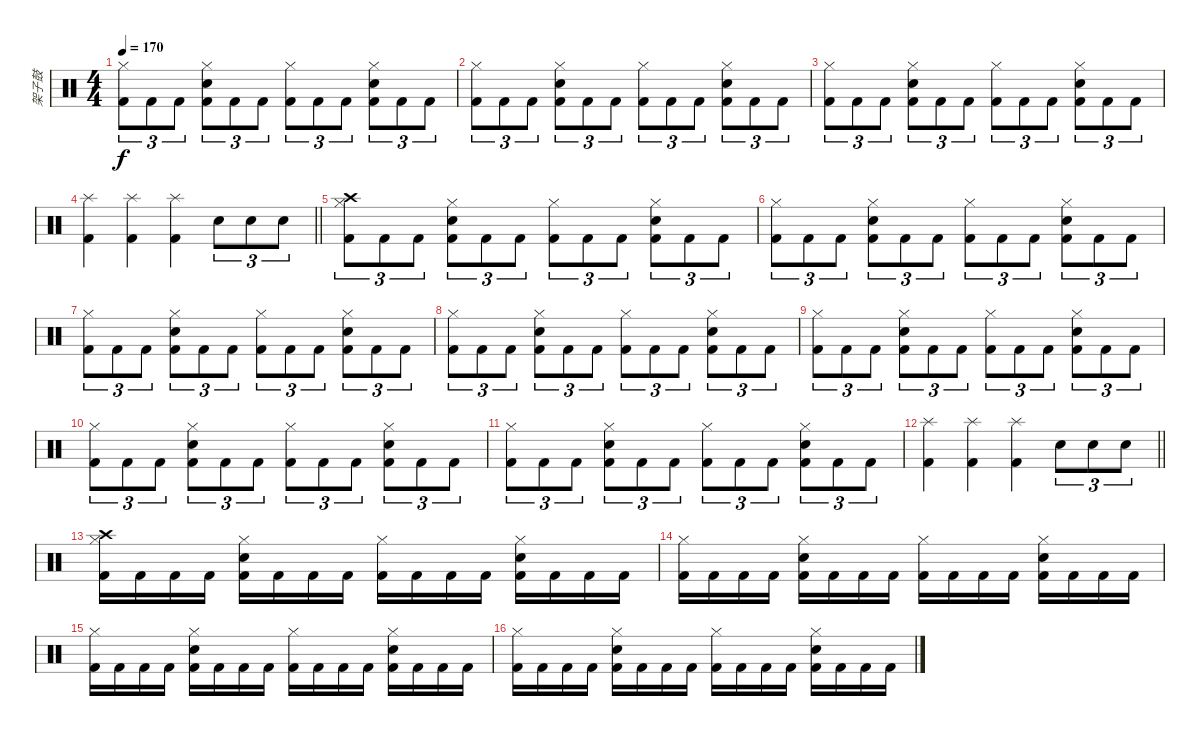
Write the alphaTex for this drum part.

\track ("架子鼓" "架子鼓") {instrument percussion}
\staff {score}
\articulation defaults
\ts (4 4)
\tempo 170
\clef neutral
\ks c
("Hi-Hat (closed)" "Kick (hit) 2").8{tu (3 2) dy f} "Kick (hit) 2".8{tu (3 2)} "Kick (hit) 2".8{tu (3 2)} ("Hi-Hat (closed)" "Snare (hit) 2" "Kick (hit) 2").8{tu (3 2)} "Kick (hit) 2".8{tu (3 2)} "Kick (hit) 2".8{tu (3 2)} ("Hi-Hat (closed)" "Kick (hit) 2").8{tu (3 2)} "Kick (hit) 2".8{tu (3 2)} "Kick (hit) 2".8{tu (3 2)} ("Hi-Hat (closed)" "Snare (hit) 2" "Kick (hit) 2").8{tu (3 2)} "Kick (hit) 2".8{tu (3 2)} "Kick (hit) 2".8{tu (3 2)} |
("Hi-Hat (closed)" "Kick (hit) 2").8{tu (3 2)} "Kick (hit) 2".8{tu (3 2)} "Kick (hit) 2".8{tu (3 2)} ("Hi-Hat (closed)" "Snare (hit) 2" "Kick (hit) 2").8{tu (3 2)} "Kick (hit) 2".8{tu (3 2)} "Kick (hit) 2".8{tu (3 2)} ("Hi-Hat (closed)" "Kick (hit) 2").8{tu (3 2)} "Kick (hit) 2".8{tu (3 2)} "Kick (hit) 2".8{tu (3 2)} ("Hi-Hat (closed)" "Snare (hit) 2" "Kick (hit) 2").8{tu (3 2)} "Kick (hit) 2".8{tu (3 2)} "Kick (hit) 2".8{tu (3 2)} |
("Hi-Hat (closed)" "Kick (hit) 2").8{tu (3 2)} "Kick (hit) 2".8{tu (3 2)} "Kick (hit) 2".8{tu (3 2)} ("Hi-Hat (closed)" "Snare (hit) 2" "Kick (hit) 2").8{tu (3 2)} "Kick (hit) 2".8{tu (3 2)} "Kick (hit) 2".8{tu (3 2)} ("Hi-Hat (closed)" "Kick (hit) 2").8{tu (3 2)} "Kick (hit) 2".8{tu (3 2)} "Kick (hit) 2".8{tu (3 2)} ("Hi-Hat (closed)" "Snare (hit) 2" "Kick (hit) 2").8{tu (3 2)} "Kick (hit) 2".8{tu (3 2)} "Kick (hit) 2".8{tu (3 2)} |
\barLineRight lightlight
("Kick (hit) 2" "Splash (hit)").4 ("Kick (hit) 2" "Splash (hit)").4 ("Kick (hit) 2" "Splash (hit)").4 "Snare (hit) 2".8{tu (3 2)} "Snare (hit) 2".8{tu (3 2)} "Snare (hit) 2".8{tu (3 2)} |
("Hi-Hat (closed)" "Kick (hit) 2" "Crash high (hit)").8{tu (3 2)} "Kick (hit) 2".8{tu (3 2)} "Kick (hit) 2".8{tu (3 2)} ("Hi-Hat (closed)" "Snare (hit) 2" "Kick (hit) 2").8{tu (3 2)} "Kick (hit) 2".8{tu (3 2)} "Kick (hit) 2".8{tu (3 2)} ("Hi-Hat (closed)" "Kick (hit) 2").8{tu (3 2)} "Kick (hit) 2".8{tu (3 2)} "Kick (hit) 2".8{tu (3 2)} ("Hi-Hat (closed)" "Snare (hit) 2" "Kick (hit) 2").8{tu (3 2)} "Kick (hit) 2".8{tu (3 2)} "Kick (hit) 2".8{tu (3 2)} |
("Hi-Hat (closed)" "Kick (hit) 2").8{tu (3 2)} "Kick (hit) 2".8{tu (3 2)} "Kick (hit) 2".8{tu (3 2)} ("Hi-Hat (closed)" "Snare (hit) 2" "Kick (hit) 2").8{tu (3 2)} "Kick (hit) 2".8{tu (3 2)} "Kick (hit) 2".8{tu (3 2)} ("Hi-Hat (closed)" "Kick (hit) 2").8{tu (3 2)} "Kick (hit) 2".8{tu (3 2)} "Kick (hit) 2".8{tu (3 2)} ("Hi-Hat (closed)" "Snare (hit) 2" "Kick (hit) 2").8{tu (3 2)} "Kick (hit) 2".8{tu (3 2)} "Kick (hit) 2".8{tu (3 2)} |
("Hi-Hat (closed)" "Kick (hit) 2").8{tu (3 2)} "Kick (hit) 2".8{tu (3 2)} "Kick (hit) 2".8{tu (3 2)} ("Hi-Hat (closed)" "Snare (hit) 2" "Kick (hit) 2").8{tu (3 2)} "Kick (hit) 2".8{tu (3 2)} "Kick (hit) 2".8{tu (3 2)} ("Hi-Hat (closed)" "Kick (hit) 2").8{tu (3 2)} "Kick (hit) 2".8{tu (3 2)} "Kick (hit) 2".8{tu (3 2)} ("Hi-Hat (closed)" "Snare (hit) 2" "Kick (hit) 2").8{tu (3 2)} "Kick (hit) 2".8{tu (3 2)} "Kick (hit) 2".8{tu (3 2)} |
("Hi-Hat (closed)" "Kick (hit) 2").8{tu (3 2)} "Kick (hit) 2".8{tu (3 2)} "Kick (hit) 2".8{tu (3 2)} ("Hi-Hat (closed)" "Snare (hit) 2" "Kick (hit) 2").8{tu (3 2)} "Kick (hit) 2".8{tu (3 2)} "Kick (hit) 2".8{tu (3 2)} ("Hi-Hat (closed)" "Kick (hit) 2").8{tu (3 2)} "Kick (hit) 2".8{tu (3 2)} "Kick (hit) 2".8{tu (3 2)} ("Hi-Hat (closed)" "Snare (hit) 2" "Kick (hit) 2").8{tu (3 2)} "Kick (hit) 2".8{tu (3 2)} "Kick (hit) 2".8{tu (3 2)} |
("Hi-Hat (closed)" "Kick (hit) 2").8{tu (3 2)} "Kick (hit) 2".8{tu (3 2)} "Kick (hit) 2".8{tu (3 2)} ("Hi-Hat (closed)" "Snare (hit) 2" "Kick (hit) 2").8{tu (3 2)} "Kick (hit) 2".8{tu (3 2)} "Kick (hit) 2".8{tu (3 2)} ("Hi-Hat (closed)" "Kick (hit) 2").8{tu (3 2)} "Kick (hit) 2".8{tu (3 2)} "Kick (hit) 2".8{tu (3 2)} ("Hi-Hat (closed)" "Snare (hit) 2" "Kick (hit) 2").8{tu (3 2)} "Kick (hit) 2".8{tu (3 2)} "Kick (hit) 2".8{tu (3 2)} |
("Hi-Hat (closed)" "Kick (hit) 2").8{tu (3 2)} "Kick (hit) 2".8{tu (3 2)} "Kick (hit) 2".8{tu (3 2)} ("Hi-Hat (closed)" "Snare (hit) 2" "Kick (hit) 2").8{tu (3 2)} "Kick (hit) 2".8{tu (3 2)} "Kick (hit) 2".8{tu (3 2)} ("Hi-Hat (closed)" "Kick (hit) 2").8{tu (3 2)} "Kick (hit) 2".8{tu (3 2)} "Kick (hit) 2".8{tu (3 2)} ("Hi-Hat (closed)" "Snare (hit) 2" "Kick (hit) 2").8{tu (3 2)} "Kick (hit) 2".8{tu (3 2)} "Kick (hit) 2".8{tu (3 2)} |
("Hi-Hat (closed)" "Kick (hit) 2").8{tu (3 2)} "Kick (hit) 2".8{tu (3 2)} "Kick (hit) 2".8{tu (3 2)} ("Hi-Hat (closed)" "Snare (hit) 2" "Kick (hit) 2").8{tu (3 2)} "Kick (hit) 2".8{tu (3 2)} "Kick (hit) 2".8{tu (3 2)} ("Hi-Hat (closed)" "Kick (hit) 2").8{tu (3 2)} "Kick (hit) 2".8{tu (3 2)} "Kick (hit) 2".8{tu (3 2)} ("Hi-Hat (closed)" "Snare (hit) 2" "Kick (hit) 2").8{tu (3 2)} "Kick (hit) 2".8{tu (3 2)} "Kick (hit) 2".8{tu (3 2)} |
\barLineRight lightlight
("Kick (hit) 2" "Splash (hit)").4 ("Kick (hit) 2" "Splash (hit)").4 ("Kick (hit) 2" "Splash (hit)").4 "Snare (hit) 2".8{tu (3 2)} "Snare (hit) 2".8{tu (3 2)} "Snare (hit) 2".8{tu (3 2)} |
("Hi-Hat (closed)" "Kick (hit) 2" "Crash high (hit)").16 "Kick (hit) 2".16 "Kick (hit) 2".16 "Kick (hit) 2".16 ("Hi-Hat (closed)" "Snare (hit) 2" "Kick (hit) 2").16 "Kick (hit) 2".16 "Kick (hit) 2".16 "Kick (hit) 2".16 ("Hi-Hat (closed)" "Kick (hit) 2").16 "Kick (hit) 2".16 "Kick (hit) 2".16 "Kick (hit) 2".16 ("Hi-Hat (closed)" "Snare (hit) 2" "Kick (hit) 2").16 "Kick (hit) 2".16 "Kick (hit) 2".16 "Kick (hit) 2".16 |
("Hi-Hat (closed)" "Kick (hit) 2").16 "Kick (hit) 2".16 "Kick (hit) 2".16 "Kick (hit) 2".16 ("Hi-Hat (closed)" "Snare (hit) 2" "Kick (hit) 2").16 "Kick (hit) 2".16 "Kick (hit) 2".16 "Kick (hit) 2".16 ("Hi-Hat (closed)" "Kick (hit) 2").16 "Kick (hit) 2".16 "Kick (hit) 2".16 "Kick (hit) 2".16 ("Hi-Hat (closed)" "Snare (hit) 2" "Kick (hit) 2").16 "Kick (hit) 2".16 "Kick (hit) 2".16 "Kick (hit) 2".16 |
("Hi-Hat (closed)" "Kick (hit) 2").16 "Kick (hit) 2".16 "Kick (hit) 2".16 "Kick (hit) 2".16 ("Hi-Hat (closed)" "Snare (hit) 2" "Kick (hit) 2").16 "Kick (hit) 2".16 "Kick (hit) 2".16 "Kick (hit) 2".16 ("Hi-Hat (closed)" "Kick (hit) 2").16 "Kick (hit) 2".16 "Kick (hit) 2".16 "Kick (hit) 2".16 ("Hi-Hat (closed)" "Snare (hit) 2" "Kick (hit) 2").16 "Kick (hit) 2".16 "Kick (hit) 2".16 "Kick (hit) 2".16 |
("Hi-Hat (closed)" "Kick (hit) 2").16 "Kick (hit) 2".16 "Kick (hit) 2".16 "Kick (hit) 2".16 ("Hi-Hat (closed)" "Snare (hit) 2" "Kick (hit) 2").16 "Kick (hit) 2".16 "Kick (hit) 2".16 "Kick (hit) 2".16 ("Hi-Hat (closed)" "Kick (hit) 2").16 "Kick (hit) 2".16 "Kick (hit) 2".16 "Kick (hit) 2".16 ("Hi-Hat (closed)" "Snare (hit) 2" "Kick (hit) 2").16 "Kick (hit) 2".16 "Kick (hit) 2".16 "Kick (hit) 2".16
